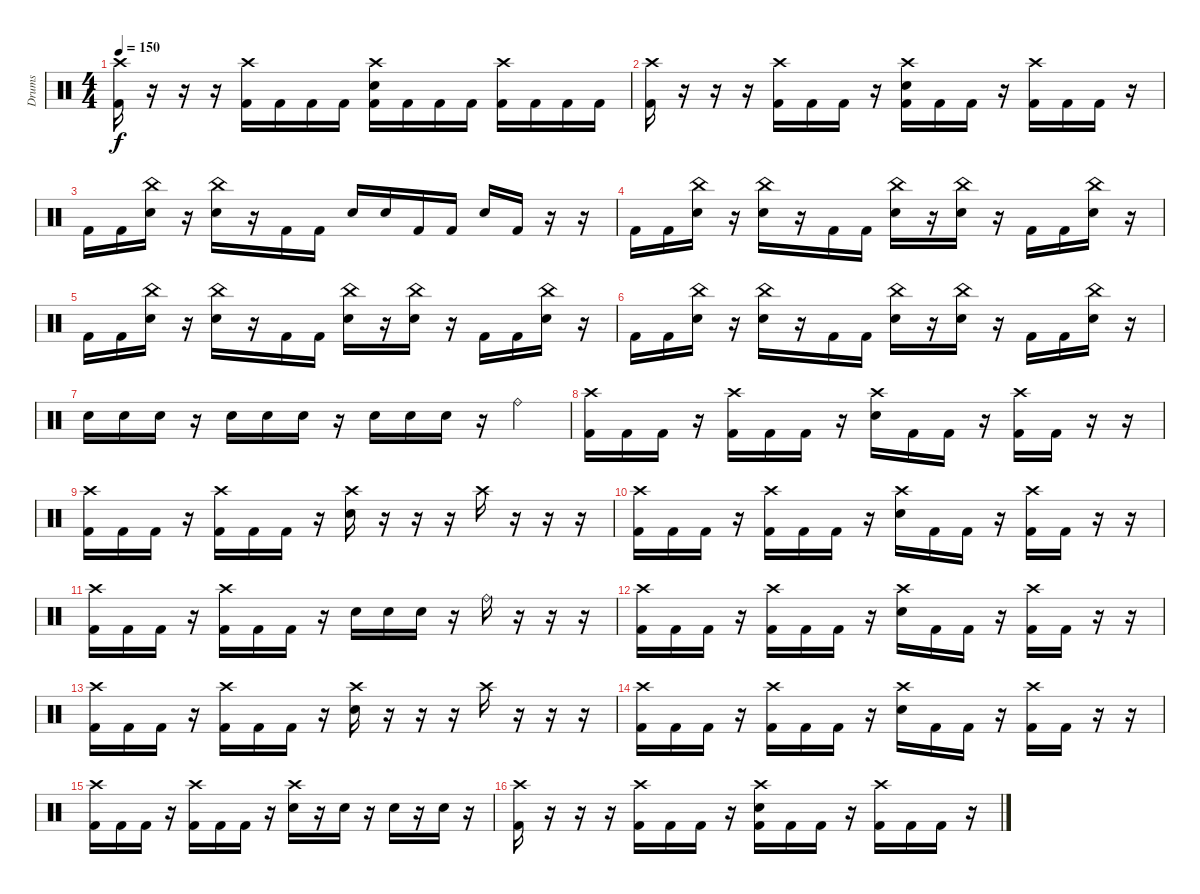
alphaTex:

\track ("Drums" "Drums") {instrument percussion}
\staff {score}
\articulation defaults
\ts (4 4)
\tempo 150
\clef neutral
\ks c
("Crash high (hit)" "Kick (hit) 2").16{dy f} r.16 r.16 r.16 ("Crash high (hit)" "Kick (hit) 2").16 "Kick (hit) 2".16 "Kick (hit) 2".16 "Kick (hit) 2".16 ("Crash high (hit)" "Snare (hit) 2" "Kick (hit) 2").16 "Kick (hit) 2".16 "Kick (hit) 2".16 "Kick (hit) 2".16 ("Crash high (hit)" "Kick (hit) 2").16 "Kick (hit) 2".16 "Kick (hit) 2".16 "Kick (hit) 2".16 |
("Crash high (hit)" "Kick (hit) 2").16 r.16 r.16 r.16 ("Crash high (hit)" "Kick (hit) 2").16 "Kick (hit) 2".16 "Kick (hit) 2".16 r.16 ("Crash high (hit)" "Snare (hit) 2" "Kick (hit) 2").16 "Kick (hit) 2".16 "Kick (hit) 2".16 r.16 ("Crash high (hit)" "Kick (hit) 2").16 "Kick (hit) 2".16 "Kick (hit) 2".16 r.16 |
"Kick (hit) 2".16 "Kick (hit) 2".16 ("China (hit)" "Snare (hit) 2").16 r.16 ("China (hit)" "Snare (hit) 2").16 r.16 "Kick (hit) 2".16 "Kick (hit) 2".16 "Snare (hit) 2".16 "Snare (hit) 2".16 "Kick (hit) 2".16 "Kick (hit) 2".16 "Snare (hit) 2".16 "Kick (hit) 2".16 r.16 r.16 |
"Kick (hit) 2".16 "Kick (hit) 2".16 ("China (hit)" "Snare (hit) 2").16 r.16 ("China (hit)" "Snare (hit) 2").16 r.16 "Kick (hit) 2".16 "Kick (hit) 2".16 ("China (hit)" "Snare (hit) 2").16 r.16 ("China (hit)" "Snare (hit) 2").16 r.16 "Kick (hit) 2".16 "Kick (hit) 2".16 ("China (hit)" "Snare (hit) 2").16 r.16 |
"Kick (hit) 2".16 "Kick (hit) 2".16 ("China (hit)" "Snare (hit) 2").16 r.16 ("China (hit)" "Snare (hit) 2").16 r.16 "Kick (hit) 2".16 "Kick (hit) 2".16 ("China (hit)" "Snare (hit) 2").16 r.16 ("China (hit)" "Snare (hit) 2").16 r.16 "Kick (hit) 2".16 "Kick (hit) 2".16 ("China (hit)" "Snare (hit) 2").16 r.16 |
"Kick (hit) 2".16 "Kick (hit) 2".16 ("China (hit)" "Snare (hit) 2").16 r.16 ("China (hit)" "Snare (hit) 2").16 r.16 "Kick (hit) 2".16 "Kick (hit) 2".16 ("China (hit)" "Snare (hit) 2").16 r.16 ("China (hit)" "Snare (hit) 2").16 r.16 "Kick (hit) 2".16 "Kick (hit) 2".16 ("China (hit)" "Snare (hit) 2").16 r.16 |
"Snare (hit) 2".16 "Snare (hit) 2".16 "Snare (hit) 2".16 r.16 "Snare (hit) 2".16 "Snare (hit) 2".16 "Snare (hit) 2".16 r.16 "Snare (hit) 2".16 "Snare (hit) 2".16 "Snare (hit) 2".16 r.16 "Ride (bell)".4 |
("Crash high (hit)" "Kick (hit) 2").16 "Kick (hit) 2".16 "Kick (hit) 2".16 r.16 ("Crash high (hit)" "Kick (hit) 2").16 "Kick (hit) 2".16 "Kick (hit) 2".16 r.16 ("Crash high (hit)" "Snare (hit) 2").16 "Kick (hit) 2".16 "Kick (hit) 2".16 r.16 ("Crash high (hit)" "Kick (hit) 2").16 "Kick (hit) 2".16 r.16 r.16 |
("Crash high (hit)" "Kick (hit) 2").16 "Kick (hit) 2".16 "Kick (hit) 2".16 r.16 ("Crash high (hit)" "Kick (hit) 2").16 "Kick (hit) 2".16 "Kick (hit) 2".16 r.16 ("Crash high (hit)" "Snare (hit) 2").16 r.16 r.16 r.16 "Crash high (hit)".16 r.16 r.16 r.16 |
("Crash high (hit)" "Kick (hit) 2").16 "Kick (hit) 2".16 "Kick (hit) 2".16 r.16 ("Crash high (hit)" "Kick (hit) 2").16 "Kick (hit) 2".16 "Kick (hit) 2".16 r.16 ("Crash high (hit)" "Snare (hit) 2").16 "Kick (hit) 2".16 "Kick (hit) 2".16 r.16 ("Crash high (hit)" "Kick (hit) 2").16 "Kick (hit) 2".16 r.16 r.16 |
("Crash high (hit)" "Kick (hit) 2").16 "Kick (hit) 2".16 "Kick (hit) 2".16 r.16 ("Crash high (hit)" "Kick (hit) 2").16 "Kick (hit) 2".16 "Kick (hit) 2".16 r.16 "Snare (hit) 2".16 "Snare (hit) 2".16 "Snare (hit) 2".16 r.16 "Ride (bell)".16 r.16 r.16 r.16 |
("Crash high (hit)" "Kick (hit) 2").16 "Kick (hit) 2".16 "Kick (hit) 2".16 r.16 ("Crash high (hit)" "Kick (hit) 2").16 "Kick (hit) 2".16 "Kick (hit) 2".16 r.16 ("Crash high (hit)" "Snare (hit) 2").16 "Kick (hit) 2".16 "Kick (hit) 2".16 r.16 ("Crash high (hit)" "Kick (hit) 2").16 "Kick (hit) 2".16 r.16 r.16 |
("Crash high (hit)" "Kick (hit) 2").16 "Kick (hit) 2".16 "Kick (hit) 2".16 r.16 ("Crash high (hit)" "Kick (hit) 2").16 "Kick (hit) 2".16 "Kick (hit) 2".16 r.16 ("Crash high (hit)" "Snare (hit) 2").16 r.16 r.16 r.16 "Crash high (hit)".16 r.16 r.16 r.16 |
("Crash high (hit)" "Kick (hit) 2").16 "Kick (hit) 2".16 "Kick (hit) 2".16 r.16 ("Crash high (hit)" "Kick (hit) 2").16 "Kick (hit) 2".16 "Kick (hit) 2".16 r.16 ("Crash high (hit)" "Snare (hit) 2").16 "Kick (hit) 2".16 "Kick (hit) 2".16 r.16 ("Crash high (hit)" "Kick (hit) 2").16 "Kick (hit) 2".16 r.16 r.16 |
("Crash high (hit)" "Kick (hit) 2").16 "Kick (hit) 2".16 "Kick (hit) 2".16 r.16 ("Crash high (hit)" "Kick (hit) 2").16 "Kick (hit) 2".16 "Kick (hit) 2".16 r.16 ("Crash high (hit)" "Snare (hit) 2").16 r.16 "Snare (hit) 2".16 r.16 "Snare (hit) 2".16 r.16 "Snare (hit) 2".16 r.16 |
("Crash high (hit)" "Kick (hit) 2").16 r.16 r.16 r.16 ("Crash high (hit)" "Kick (hit) 2").16 "Kick (hit) 2".16 "Kick (hit) 2".16 r.16 ("Crash high (hit)" "Snare (hit) 2" "Kick (hit) 2").16 "Kick (hit) 2".16 "Kick (hit) 2".16 r.16 ("Crash high (hit)" "Kick (hit) 2").16 "Kick (hit) 2".16 "Kick (hit) 2".16 r.16
